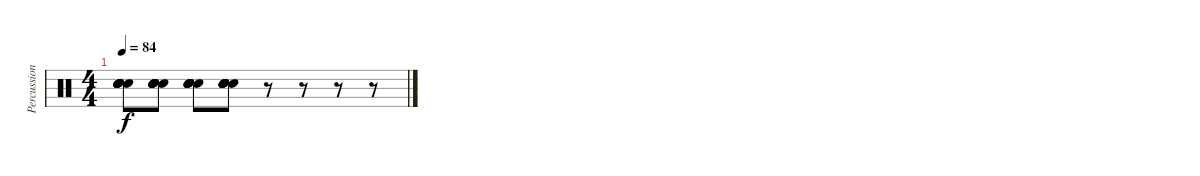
\track ("Percussion" "Percussion") {instrument percussion}
\staff {score}
\articulation defaults
\ts (4 4)
\tempo 84
\clef neutral
\ks c
("Electric Snare (hit)" "Electric Snare (hit)" "Electric Snare (hit)" "Electric Snare (hit)" "Electric Snare (hit)" "Electric Snare (hit)").8{dy f} ("Electric Snare (hit)" "Electric Snare (hit)" "Electric Snare (hit)" "Electric Snare (hit)" "Electric Snare (hit)" "Electric Snare (hit)").8 ("Electric Snare (hit)" "Electric Snare (hit)" "Electric Snare (hit)" "Electric Snare (hit)" "Electric Snare (hit)" "Electric Snare (hit)").8 ("Electric Snare (hit)" "Electric Snare (hit)" "Electric Snare (hit)" "Electric Snare (hit)" "Electric Snare (hit)" "Electric Snare (hit)").8 r.8 r.8 r.8 r.8
